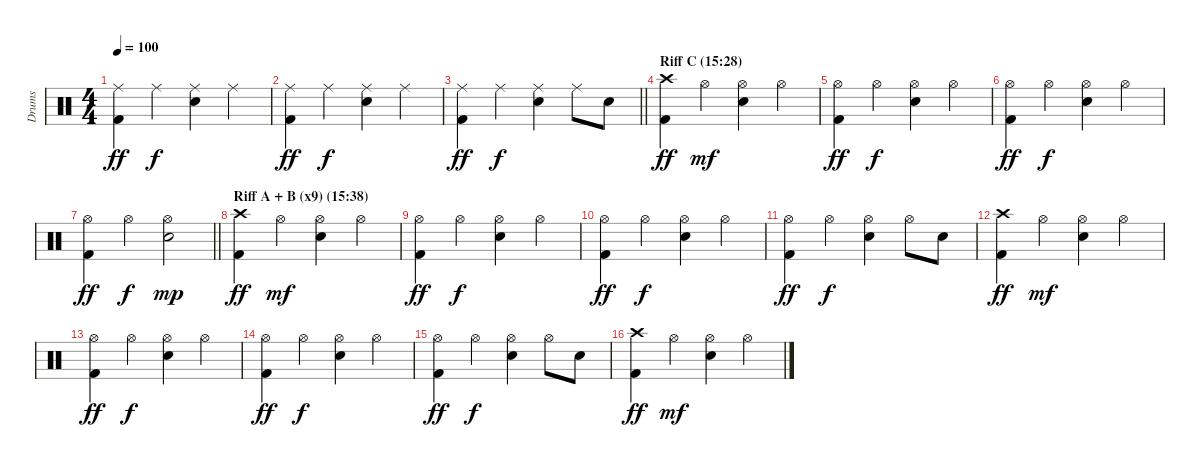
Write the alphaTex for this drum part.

\track ("Drums" "Drums") {instrument percussion}
\staff {score}
\articulation defaults
\ts (4 4)
\tempo 100
\clef neutral
\ks c
("Ride (middle)" "Kick (hit) 2").4{dy ff} "Ride (middle)".4{dy f} ("Ride (middle)" "Electric Snare (hit)").4 "Ride (middle)".4 |
("Ride (middle)" "Kick (hit) 2").4{dy ff} "Ride (middle)".4{dy f} ("Ride (middle)" "Electric Snare (hit)").4 "Ride (middle)".4 |
\barLineRight lightlight
("Ride (middle)" "Kick (hit) 2").4{dy ff} "Ride (middle)".4{dy f} ("Ride (middle)" "Electric Snare (hit)").4 "Ride (middle)".8 "Electric Snare (hit)".8 |
\section ("" "Riff C (15:28)")
("Crash high (hit)" "Kick (hit) 2").4{dy ff} "Hi-Hat (open)".4{dy mf} ("Hi-Hat (open)" "Electric Snare (hit)").4 "Hi-Hat (open)".4 |
("Hi-Hat (open)" "Kick (hit) 2").4{dy ff} "Hi-Hat (open)".4{dy f} ("Hi-Hat (open)" "Electric Snare (hit)").4 "Hi-Hat (open)".4 |
("Hi-Hat (open)" "Kick (hit) 2").4{dy ff} "Hi-Hat (open)".4{dy f} ("Hi-Hat (open)" "Electric Snare (hit)").4 "Hi-Hat (open)".4 |
\barLineRight lightlight
("Hi-Hat (open)" "Kick (hit) 2").4{dy ff} "Hi-Hat (open)".4{dy f} ("Hi-Hat (open)" "Electric Snare (hit)").2{dy mp} |
\section ("" "Riff A + B (x9) (15:38)")
("Crash high (hit)" "Kick (hit) 2").4{dy ff} "Hi-Hat (open)".4{dy mf} ("Hi-Hat (open)" "Electric Snare (hit)").4 "Hi-Hat (open)".4 |
("Hi-Hat (open)" "Kick (hit) 2").4{dy ff} "Hi-Hat (open)".4{dy f} ("Hi-Hat (open)" "Electric Snare (hit)").4 "Hi-Hat (open)".4 |
("Hi-Hat (open)" "Kick (hit) 2").4{dy ff} "Hi-Hat (open)".4{dy f} ("Hi-Hat (open)" "Electric Snare (hit)").4 "Hi-Hat (open)".4 |
("Hi-Hat (open)" "Kick (hit) 2").4{dy ff} "Hi-Hat (open)".4{dy f} ("Hi-Hat (open)" "Electric Snare (hit)").4 "Hi-Hat (open)".8 "Electric Snare (hit)".8 |
("Crash high (hit)" "Kick (hit) 2").4{dy ff} "Hi-Hat (open)".4{dy mf} ("Hi-Hat (open)" "Electric Snare (hit)").4 "Hi-Hat (open)".4 |
("Hi-Hat (open)" "Kick (hit) 2").4{dy ff} "Hi-Hat (open)".4{dy f} ("Hi-Hat (open)" "Electric Snare (hit)").4 "Hi-Hat (open)".4 |
("Hi-Hat (open)" "Kick (hit) 2").4{dy ff} "Hi-Hat (open)".4{dy f} ("Hi-Hat (open)" "Electric Snare (hit)").4 "Hi-Hat (open)".4 |
("Hi-Hat (open)" "Kick (hit) 2").4{dy ff} "Hi-Hat (open)".4{dy f} ("Hi-Hat (open)" "Electric Snare (hit)").4 "Hi-Hat (open)".8 "Electric Snare (hit)".8 |
("Crash high (hit)" "Kick (hit) 2").4{dy ff} "Hi-Hat (open)".4{dy mf} ("Hi-Hat (open)" "Electric Snare (hit)").4 "Hi-Hat (open)".4
